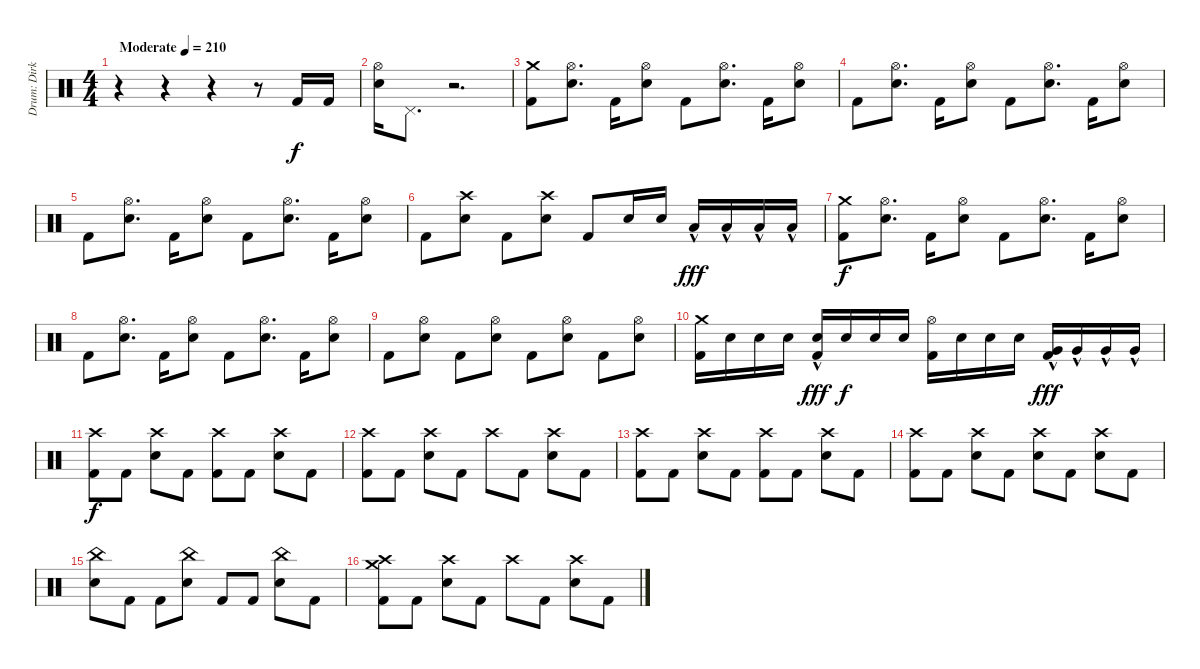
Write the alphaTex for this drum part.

\track ("Drum: Dirk" "Drum: Dirk") {instrument percussion}
\staff {score}
\articulation defaults
\ts (4 4)
\tempo (210 "Moderate")
\clef neutral
\ks c
r.4{dy f} r.4 r.4 r.8 "Kick (hit) 2".16 "Kick (hit) 2".16 |
("Hi-Hat (open)" "Electric Snare (hit)").16 "Pedal Hi-Hat (hit)".8{d} r.2{d} |
("Crash medium (hit)" "Kick (hit) 2").8 ("Hi-Hat (open)" "Electric Snare (hit)").8{d} "Kick (hit) 2".16 ("Hi-Hat (open)" "Electric Snare (hit)").8 "Kick (hit) 2".8 ("Hi-Hat (open)" "Electric Snare (hit)").8{d} "Kick (hit) 2".16 ("Hi-Hat (open)" "Electric Snare (hit)").8 |
"Kick (hit) 2".8 ("Hi-Hat (open)" "Electric Snare (hit)").8{d} "Kick (hit) 2".16 ("Hi-Hat (open)" "Electric Snare (hit)").8 "Kick (hit) 2".8 ("Hi-Hat (open)" "Electric Snare (hit)").8{d} "Kick (hit) 2".16 ("Hi-Hat (open)" "Electric Snare (hit)").8 |
"Kick (hit) 2".8 ("Hi-Hat (open)" "Electric Snare (hit)").8{d} "Kick (hit) 2".16 ("Hi-Hat (open)" "Electric Snare (hit)").8 "Kick (hit) 2".8 ("Hi-Hat (open)" "Electric Snare (hit)").8{d} "Kick (hit) 2".16 ("Hi-Hat (open)" "Electric Snare (hit)").8 |
"Kick (hit) 2".8 ("Crash high (hit)" "Electric Snare (hit)").8 "Kick (hit) 2".8 ("Crash high (hit)" "Electric Snare (hit)").8 "Kick (hit) 2".8 "Electric Snare (hit)".16 "Electric Snare (hit)".16 "Low Tom (hit)"{hac}.16{dy fff} "Low Tom (hit)"{hac}.16 "Low Tom (hit)"{hac}.16 "Low Tom (hit)"{hac}.16 |
("Crash medium (hit)" "Kick (hit) 2").8{dy f} ("Hi-Hat (open)" "Electric Snare (hit)").8{d} "Kick (hit) 2".16 ("Hi-Hat (open)" "Electric Snare (hit)").8 "Kick (hit) 2".8 ("Hi-Hat (open)" "Electric Snare (hit)").8{d} "Kick (hit) 2".16 ("Hi-Hat (open)" "Electric Snare (hit)").8 |
"Kick (hit) 2".8 ("Hi-Hat (open)" "Electric Snare (hit)").8{d} "Kick (hit) 2".16 ("Hi-Hat (open)" "Electric Snare (hit)").8 "Kick (hit) 2".8 ("Hi-Hat (open)" "Electric Snare (hit)").8{d} "Kick (hit) 2".16 ("Hi-Hat (open)" "Electric Snare (hit)").8 |
"Kick (hit) 2".8 ("Hi-Hat (open)" "Electric Snare (hit)").8 "Kick (hit) 2".8 ("Hi-Hat (open)" "Electric Snare (hit)").8 "Kick (hit) 2".8 ("Hi-Hat (open)" "Electric Snare (hit)").8 "Kick (hit) 2".8 ("Hi-Hat (open)" "Electric Snare (hit)").8 |
("Crash medium (hit)" "Kick (hit) 2").16 "Electric Snare (hit)".16 "Electric Snare (hit)".16 "Electric Snare (hit)".16 ("Electric Snare (hit)"{hac} "Kick (hit) 2").16{dy fff} "Electric Snare (hit)".16{dy f} "Electric Snare (hit)".16 "Electric Snare (hit)".16 ("Hi-Hat (open)" "Kick (hit) 2").16 "Electric Snare (hit)".16 "Electric Snare (hit)".16 "Electric Snare (hit)".16 ("Very Low Tom (hit)"{hac} "Kick (hit) 2").16{dy fff} "Very Low Tom (hit)"{hac}.16 "Very Low Tom (hit)"{hac}.16 "Very Low Tom (hit)"{hac}.16 |
("Crash high (hit)" "Kick (hit) 2").8{dy f} "Kick (hit) 2".8 ("Crash high (hit)" "Electric Snare (hit)").8 "Kick (hit) 2".8 ("Crash high (hit)" "Kick (hit) 2").8 "Kick (hit) 2".8 ("Crash high (hit)" "Electric Snare (hit)").8 "Kick (hit) 2".8 |
("Crash high (hit)" "Kick (hit) 2").8 "Kick (hit) 2".8 ("Crash high (hit)" "Electric Snare (hit)").8 "Kick (hit) 2".8 "Crash high (hit)".8 "Kick (hit) 2".8 ("Crash high (hit)" "Electric Snare (hit)").8 "Kick (hit) 2".8 |
("Crash high (hit)" "Kick (hit) 2").8 "Kick (hit) 2".8 ("Crash high (hit)" "Electric Snare (hit)").8 "Kick (hit) 2".8 ("Crash high (hit)" "Kick (hit) 2").8 "Kick (hit) 2".8 ("Crash high (hit)" "Electric Snare (hit)").8 "Kick (hit) 2".8 |
("Crash high (hit)" "Kick (hit) 2").8 "Kick (hit) 2".8 ("Crash high (hit)" "Electric Snare (hit)").8 "Kick (hit) 2".8 ("Crash high (hit)" "Electric Snare (hit)").8 "Kick (hit) 2".8 ("Crash high (hit)" "Electric Snare (hit)").8 "Kick (hit) 2".8 |
("China (hit)" "Electric Snare (hit)").8 "Kick (hit) 2".8 "Kick (hit) 2".8 ("China (hit)" "Electric Snare (hit)").8 "Kick (hit) 2".8 "Kick (hit) 2".8 ("China (hit)" "Electric Snare (hit)").8 "Kick (hit) 2".8 |
("Crash high (hit)" "Crash medium (hit)" "Kick (hit) 2").8 "Kick (hit) 2".8 ("Crash high (hit)" "Electric Snare (hit)").8 "Kick (hit) 2".8 "Crash high (hit)".8 "Kick (hit) 2".8 ("Crash high (hit)" "Electric Snare (hit)").8 "Kick (hit) 2".8
